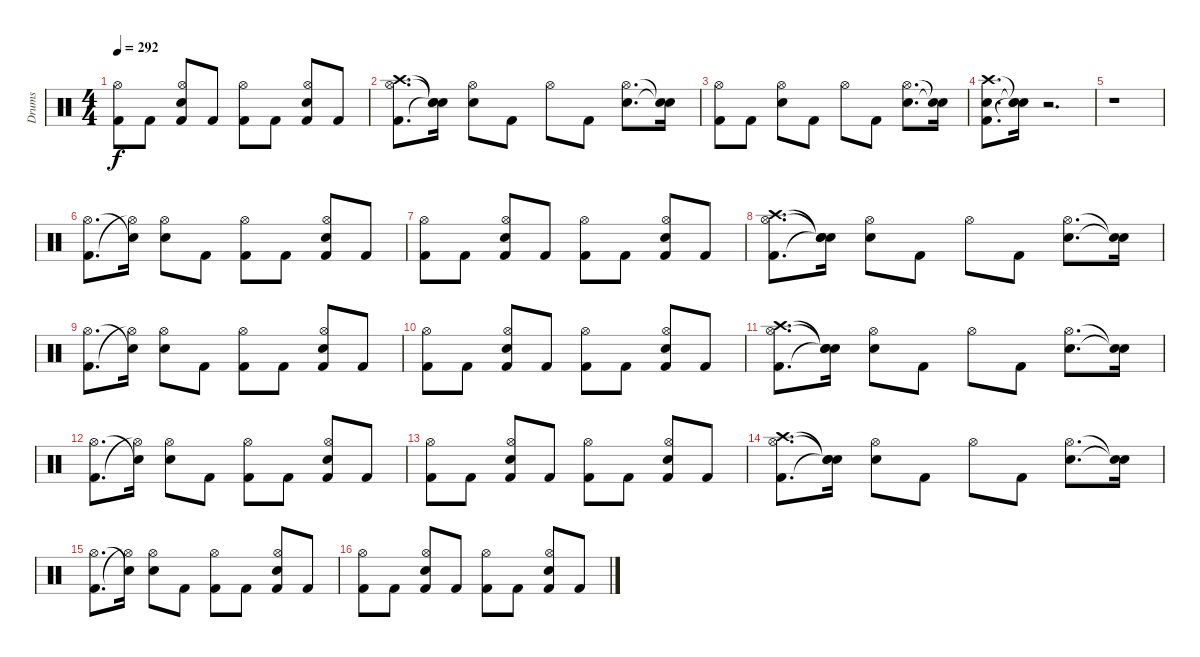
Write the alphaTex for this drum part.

\track ("Drums" "Drums") {instrument percussion}
\staff {score}
\articulation defaults
\ts (4 4)
\tempo 292
\clef neutral
\ks c
("Kick (hit) 2" "Hi-Hat (open)").8{dy f} "Kick (hit) 2".8 ("Kick (hit) 2" "Snare (hit) 2" "Hi-Hat (open)").8 "Kick (hit) 2".8 ("Kick (hit) 2" "Hi-Hat (open)").8 "Kick (hit) 2".8 ("Kick (hit) 2" "Snare (hit) 2" "Hi-Hat (open)").8 "Kick (hit) 2".8 |
("Kick (hit) 2" "Hi-Hat (open)" "Crash high (hit)").8{d} ("Snare (hit)"{t} "Snare (hit)"{t} "Snare (hit)"{t}).16 ("Snare (hit) 2" "Hi-Hat (open)").8 "Kick (hit) 2".8 "Hi-Hat (open)".8 "Kick (hit) 2".8 ("Snare (hit) 2" "Hi-Hat (open)").8{d} ("Snare (hit)"{t} "Snare (hit)"{t}).16 |
("Kick (hit) 2" "Hi-Hat (open)").8 "Kick (hit) 2".8 ("Snare (hit) 2" "Hi-Hat (open)").8 "Kick (hit) 2".8 "Hi-Hat (open)".8 "Kick (hit) 2".8 ("Snare (hit) 2" "Hi-Hat (open)").8{d} ("Snare (hit)"{t} "Snare (hit)"{t}).16 |
("Kick (hit) 2" "Snare (hit) 2" "Crash high (hit)").8{d} ("Snare (hit)"{t} "Snare (hit)"{t} "Snare (hit)"{t}).16 r.2{d} |
r.1 |
("Kick (hit) 2" "Hi-Hat (open)").8{d} ("Hi-Hat (open)"{t} "Snare (hit)"{t}).16 ("Snare (hit) 2" "Hi-Hat (open)").8 "Kick (hit) 2".8 ("Kick (hit) 2" "Hi-Hat (open)").8 "Kick (hit) 2".8 ("Kick (hit) 2" "Snare (hit) 2" "Hi-Hat (open)").8 "Kick (hit) 2".8 |
("Kick (hit) 2" "Hi-Hat (open)").8 "Kick (hit) 2".8 ("Kick (hit) 2" "Snare (hit) 2" "Hi-Hat (open)").8 "Kick (hit) 2".8 ("Kick (hit) 2" "Hi-Hat (open)").8 "Kick (hit) 2".8 ("Kick (hit) 2" "Snare (hit) 2" "Hi-Hat (open)").8 "Kick (hit) 2".8 |
("Kick (hit) 2" "Hi-Hat (open)" "Crash high (hit)").8{d} ("Snare (hit)"{t} "Snare (hit)"{t} "Snare (hit)"{t}).16 ("Snare (hit) 2" "Hi-Hat (open)").8 "Kick (hit) 2".8 "Hi-Hat (open)".8 "Kick (hit) 2".8 ("Snare (hit) 2" "Hi-Hat (open)").8{d} ("Snare (hit)"{t} "Snare (hit)"{t}).16 |
("Kick (hit) 2" "Hi-Hat (open)").8{d} ("Hi-Hat (open)"{t} "Snare (hit)"{t}).16 ("Snare (hit) 2" "Hi-Hat (open)").8 "Kick (hit) 2".8 ("Kick (hit) 2" "Hi-Hat (open)").8 "Kick (hit) 2".8 ("Kick (hit) 2" "Snare (hit) 2" "Hi-Hat (open)").8 "Kick (hit) 2".8 |
("Kick (hit) 2" "Hi-Hat (open)").8 "Kick (hit) 2".8 ("Kick (hit) 2" "Snare (hit) 2" "Hi-Hat (open)").8 "Kick (hit) 2".8 ("Kick (hit) 2" "Hi-Hat (open)").8 "Kick (hit) 2".8 ("Kick (hit) 2" "Snare (hit) 2" "Hi-Hat (open)").8 "Kick (hit) 2".8 |
("Kick (hit) 2" "Hi-Hat (open)" "Crash high (hit)").8{d} ("Snare (hit)"{t} "Snare (hit)"{t} "Snare (hit)"{t}).16 ("Snare (hit) 2" "Hi-Hat (open)").8 "Kick (hit) 2".8 "Hi-Hat (open)".8 "Kick (hit) 2".8 ("Snare (hit) 2" "Hi-Hat (open)").8{d} ("Snare (hit)"{t} "Snare (hit)"{t}).16 |
("Kick (hit) 2" "Hi-Hat (open)").8{d} ("Hi-Hat (open)"{t} "Snare (hit)"{t}).16 ("Snare (hit) 2" "Hi-Hat (open)").8 "Kick (hit) 2".8 ("Kick (hit) 2" "Hi-Hat (open)").8 "Kick (hit) 2".8 ("Kick (hit) 2" "Snare (hit) 2" "Hi-Hat (open)").8 "Kick (hit) 2".8 |
("Kick (hit) 2" "Hi-Hat (open)").8 "Kick (hit) 2".8 ("Kick (hit) 2" "Snare (hit) 2" "Hi-Hat (open)").8 "Kick (hit) 2".8 ("Kick (hit) 2" "Hi-Hat (open)").8 "Kick (hit) 2".8 ("Kick (hit) 2" "Snare (hit) 2" "Hi-Hat (open)").8 "Kick (hit) 2".8 |
("Kick (hit) 2" "Hi-Hat (open)" "Crash high (hit)").8{d} ("Snare (hit)"{t} "Snare (hit)"{t} "Snare (hit)"{t}).16 ("Snare (hit) 2" "Hi-Hat (open)").8 "Kick (hit) 2".8 "Hi-Hat (open)".8 "Kick (hit) 2".8 ("Snare (hit) 2" "Hi-Hat (open)").8{d} ("Snare (hit)"{t} "Snare (hit)"{t}).16 |
("Kick (hit) 2" "Hi-Hat (open)").8{d} ("Hi-Hat (open)"{t} "Snare (hit)"{t}).16 ("Snare (hit) 2" "Hi-Hat (open)").8 "Kick (hit) 2".8 ("Kick (hit) 2" "Hi-Hat (open)").8 "Kick (hit) 2".8 ("Kick (hit) 2" "Snare (hit) 2" "Hi-Hat (open)").8 "Kick (hit) 2".8 |
("Kick (hit) 2" "Hi-Hat (open)").8 "Kick (hit) 2".8 ("Kick (hit) 2" "Snare (hit) 2" "Hi-Hat (open)").8 "Kick (hit) 2".8 ("Kick (hit) 2" "Hi-Hat (open)").8 "Kick (hit) 2".8 ("Kick (hit) 2" "Snare (hit) 2" "Hi-Hat (open)").8 "Kick (hit) 2".8
